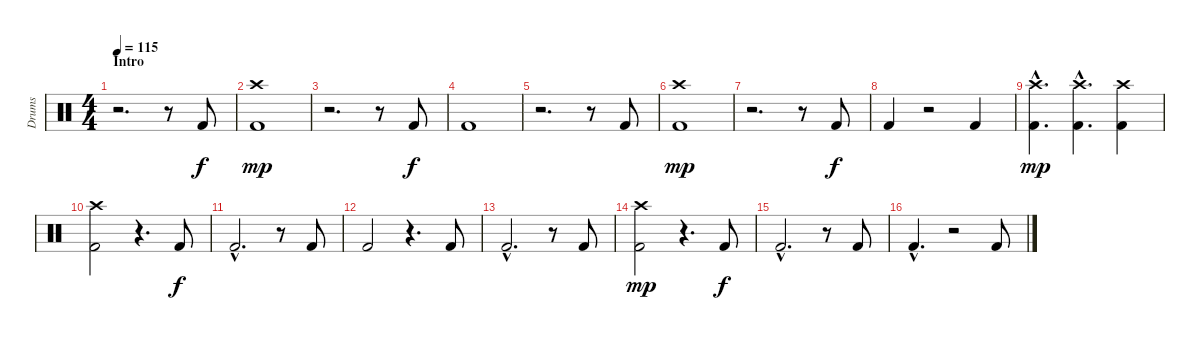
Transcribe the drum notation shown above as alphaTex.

\track ("Drums" "Drums") {instrument percussion}
\staff {score}
\articulation defaults
\ts (4 4)
\section ("" "Intro")
\tempo 115
\clef neutral
\ks c
r.2{d dy f} r.8 "Kick (hit) 2".8 |
("Crash high (hit)" "Kick (hit) 2").1{dy mp} |
r.2{d} r.8 "Kick (hit) 2".8{dy f} |
"Kick (hit) 2".1 |
r.2{d} r.8 "Kick (hit) 2".8 |
("Crash high (hit)" "Kick (hit) 2").1{dy mp} |
r.2{d} r.8 "Kick (hit) 2".8{dy f} |
"Kick (hit) 2".4 r.2 "Kick (hit) 2".4 |
("Crash high (hit)"{hac} "Kick (hit) 2"{hac}).4{d dy mp} ("Crash high (hit)"{hac} "Kick (hit) 2"{hac}).4{d} ("Crash high (hit)" "Kick (hit) 2").4 |
("Crash high (hit)" "Kick (hit) 2").2 r.4{d} "Kick (hit) 2".8{dy f} |
"Kick (hit) 2"{hac}.2{d} r.8 "Kick (hit) 2".8 |
"Kick (hit) 2".2 r.4{d} "Kick (hit) 2".8 |
"Kick (hit) 2"{hac}.2{d} r.8 "Kick (hit) 2".8 |
("Crash high (hit)" "Kick (hit) 2").2{dy mp} r.4{d} "Kick (hit) 2".8{dy f} |
"Kick (hit) 2"{hac}.2{d} r.8 "Kick (hit) 2".8 |
"Kick (hit) 2"{hac}.4{d} r.2 "Kick (hit) 2".8
